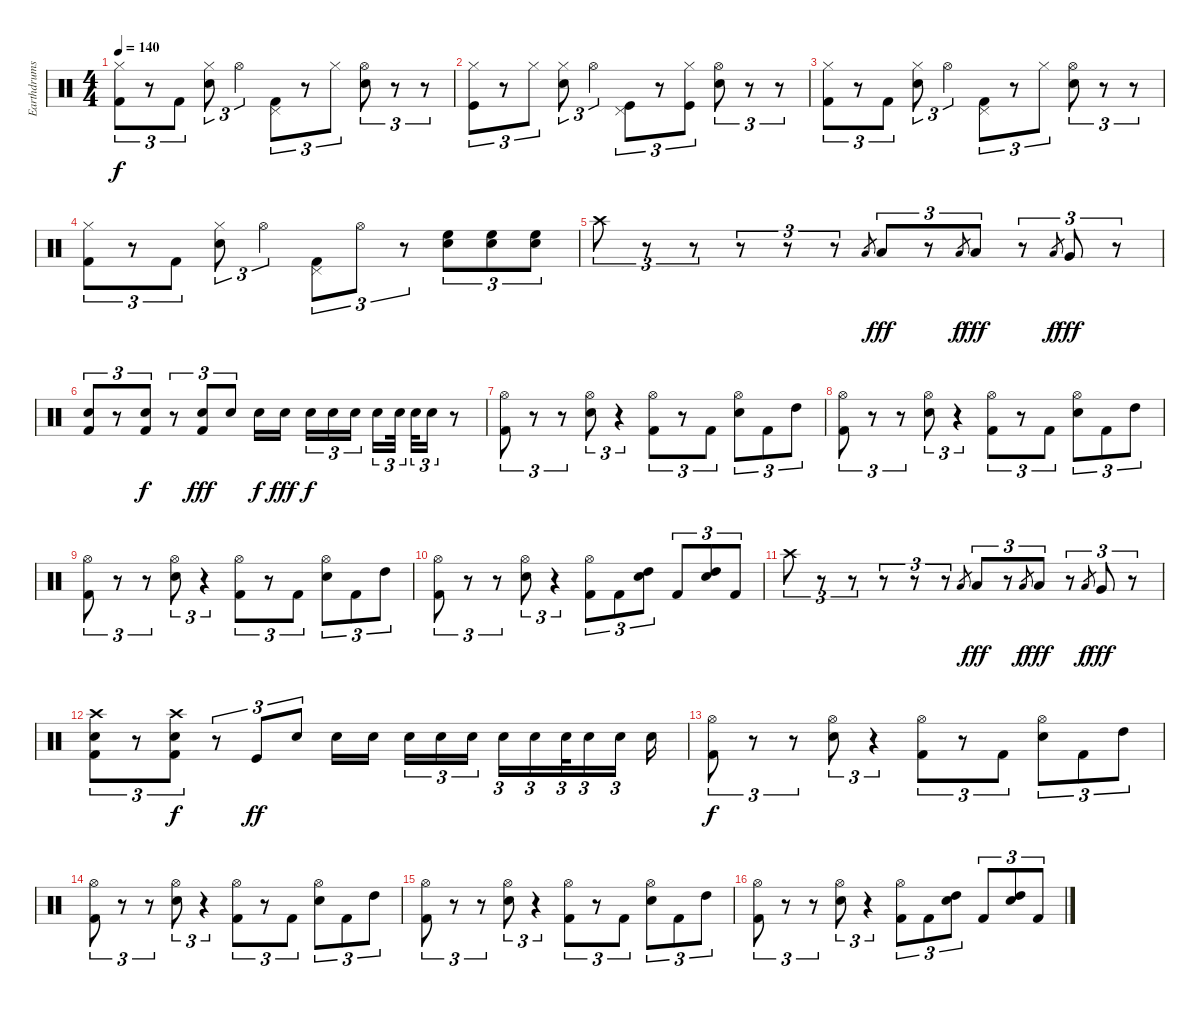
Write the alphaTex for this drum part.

\track ("Earthdrums" "Earthdrums") {instrument percussion}
\staff {score}
\articulation defaults
\ts (4 4)
\tempo 140
\clef neutral
\ks c
("Hi-Hat (closed)" "Kick (hit) 2").8{tu (3 2) dy f} r.8{tu (3 2)} "Kick (hit) 2".8{tu (3 2)} ("Hi-Hat (closed)" "Snare (hit) 2").8{tu (3 2)} "Hi-Hat (open)".4{tu (3 2)} ("Pedal Hi-Hat (hit)" "Kick (hit) 2").8{tu (3 2)} r.8{tu (3 2)} "Hi-Hat (closed)".8{tu (3 2)} ("Hi-Hat (open)" "Snare (hit) 2").8{tu (3 2)} r.8{tu (3 2)} r.8{tu (3 2)} |
("Hi-Hat (closed)" "Kick (hit)").8{tu (3 2)} r.8{tu (3 2)} "Hi-Hat (closed)".8{tu (3 2)} ("Hi-Hat (closed)" "Snare (hit) 2").8{tu (3 2)} "Hi-Hat (open)".4{tu (3 2)} ("Pedal Hi-Hat (hit)" "Kick (hit)").8{tu (3 2)} r.8{tu (3 2)} ("Hi-Hat (closed)" "Kick (hit)").8{tu (3 2)} ("Hi-Hat (open)" "Snare (hit) 2").8{tu (3 2)} r.8{tu (3 2)} r.8{tu (3 2)} |
("Hi-Hat (closed)" "Kick (hit) 2").8{tu (3 2)} r.8{tu (3 2)} "Kick (hit) 2".8{tu (3 2)} ("Hi-Hat (closed)" "Snare (hit) 2").8{tu (3 2)} "Hi-Hat (open)".4{tu (3 2)} ("Pedal Hi-Hat (hit)" "Kick (hit) 2").8{tu (3 2)} r.8{tu (3 2)} "Hi-Hat (closed)".8{tu (3 2)} ("Hi-Hat (open)" "Snare (hit) 2").8{tu (3 2)} r.8{tu (3 2)} r.8{tu (3 2)} |
("Hi-Hat (closed)" "Kick (hit) 2").8{tu (3 2)} r.8{tu (3 2)} "Kick (hit) 2".8{tu (3 2)} ("Hi-Hat (closed)" "Snare (hit) 2").8{tu (3 2)} "Hi-Hat (open)".4{tu (3 2)} ("Pedal Hi-Hat (hit)" "Kick (hit) 2").8{tu (3 2)} "Hi-Hat (open)".8{tu (3 2)} r.8{tu (3 2)} ("Snare (hit) 2" "High Floor Tom (hit)").8{tu (3 2)} ("Snare (hit) 2" "High Floor Tom (hit)").8{tu (3 2)} ("Snare (hit) 2" "High Floor Tom (hit)").8{tu (3 2)} |
"Crash high (hit)".8{tu (3 2)} r.8{tu (3 2)} r.8{tu (3 2)} r.8{tu (3 2)} r.8{tu (3 2)} r.8{tu (3 2)} "Low Tom (hit)".8{gr} "Low Tom (hit)".8{tu (3 2) dy fff} r.8{tu (3 2)} "Low Tom (hit)".8{gr dy f} "Low Tom (hit)".8{tu (3 2) dy fff} r.8{tu (3 2)} "Low Tom (hit)".8{gr dy f} "Very Low Tom (hit)".8{tu (3 2) dy fff} r.8{tu (3 2)} |
("Snare (hit) 2" "Kick (hit) 2").8{tu (3 2)} r.8{tu (3 2)} ("Snare (hit) 2" "Kick (hit) 2").8{tu (3 2) dy f} r.8{tu (3 2)} ("Snare (hit) 2" "Kick (hit) 2").8{tu (3 2) dy fff} "Snare (hit) 2".8{tu (3 2)} "Snare (hit) 2".16{dy f} "Snare (hit) 2".16{dy fff beam splitsecondary} "Snare (hit) 2".16{tu (3 2) dy f} "Snare (hit) 2".16{tu (3 2)} "Snare (hit) 2".16{tu (3 2)} "Snare (hit) 2".16{tu (3 2)} "Snare (hit) 2".32{tu (3 2) beam splitsecondary} "Snare (hit) 2".32{tu (3 2)} "Snare (hit) 2".16{tu (3 2)} r.8 |
("Hi-Hat (open)" "Kick (hit) 2").8{tu (3 2)} r.8{tu (3 2)} r.8{tu (3 2)} ("Hi-Hat (open)" "Snare (hit) 2").8{tu (3 2)} r.4{tu (3 2)} ("Hi-Hat (open)" "Kick (hit) 2").8{tu (3 2)} r.8{tu (3 2)} "Kick (hit) 2".8{tu (3 2)} ("Hi-Hat (open)" "Snare (hit) 2").8{tu (3 2)} "Kick (hit) 2".8{tu (3 2)} "High Tom (hit)".8{tu (3 2)} |
("Hi-Hat (open)" "Kick (hit) 2").8{tu (3 2)} r.8{tu (3 2)} r.8{tu (3 2)} ("Hi-Hat (open)" "Snare (hit) 2").8{tu (3 2)} r.4{tu (3 2)} ("Hi-Hat (open)" "Kick (hit) 2").8{tu (3 2)} r.8{tu (3 2)} "Kick (hit) 2".8{tu (3 2)} ("Hi-Hat (open)" "Snare (hit) 2").8{tu (3 2)} "Kick (hit) 2".8{tu (3 2)} "High Tom (hit)".8{tu (3 2)} |
("Hi-Hat (open)" "Kick (hit) 2").8{tu (3 2)} r.8{tu (3 2)} r.8{tu (3 2)} ("Hi-Hat (open)" "Snare (hit) 2").8{tu (3 2)} r.4{tu (3 2)} ("Hi-Hat (open)" "Kick (hit) 2").8{tu (3 2)} r.8{tu (3 2)} "Kick (hit) 2".8{tu (3 2)} ("Hi-Hat (open)" "Snare (hit) 2").8{tu (3 2)} "Kick (hit) 2".8{tu (3 2)} "High Tom (hit)".8{tu (3 2)} |
("Hi-Hat (open)" "Kick (hit) 2").8{tu (3 2)} r.8{tu (3 2)} r.8{tu (3 2)} ("Hi-Hat (open)" "Snare (hit) 2").8{tu (3 2)} r.4{tu (3 2)} ("Hi-Hat (open)" "Kick (hit) 2").8{tu (3 2)} "Kick (hit) 2".8{tu (3 2)} ("High Tom (hit)" "Snare (hit) 2").8{tu (3 2)} "Kick (hit) 2".8{tu (3 2)} ("High Tom (hit)" "Snare (hit) 2").8{tu (3 2)} "Kick (hit) 2".8{tu (3 2)} |
"Crash high (hit)".8{tu (3 2)} r.8{tu (3 2)} r.8{tu (3 2)} r.8{tu (3 2)} r.8{tu (3 2)} r.8{tu (3 2)} "Low Tom (hit)".8{gr} "Low Tom (hit)".8{tu (3 2) dy fff} r.8{tu (3 2)} "Low Tom (hit)".8{gr dy f} "Low Tom (hit)".8{tu (3 2) dy fff} r.8{tu (3 2)} "Low Tom (hit)".8{gr dy f} "Very Low Tom (hit)".8{tu (3 2) dy fff} r.8{tu (3 2)} |
("Crash high (hit)" "Snare (hit) 2" "Kick (hit) 2").8{tu (3 2)} r.8{tu (3 2)} ("Crash high (hit)" "Snare (hit) 2" "Kick (hit) 2").8{tu (3 2) dy f} r.8{tu (3 2)} "Kick (hit)".8{tu (3 2) dy ff} "Snare (hit) 2".8{tu (3 2)} "Snare (hit) 2".16 "Snare (hit) 2".16{beam splitsecondary} "Snare (hit) 2".16{tu (3 2)} "Snare (hit) 2".16{tu (3 2)} "Snare (hit) 2".16{tu (3 2)} "Snare (hit) 2".16{tu (3 2)} "Snare (hit) 2".16{tu (3 2)} "Snare (hit) 2".32{tu (3 2)} "Snare (hit) 2".16{tu (3 2)} "Snare (hit) 2".16{tu (3 2) beam splitsecondary} "Snare (hit) 2".16 |
("Hi-Hat (open)" "Kick (hit) 2").8{tu (3 2) dy f} r.8{tu (3 2)} r.8{tu (3 2)} ("Hi-Hat (open)" "Snare (hit) 2").8{tu (3 2)} r.4{tu (3 2)} ("Hi-Hat (open)" "Kick (hit) 2").8{tu (3 2)} r.8{tu (3 2)} "Kick (hit) 2".8{tu (3 2)} ("Hi-Hat (open)" "Snare (hit) 2").8{tu (3 2)} "Kick (hit) 2".8{tu (3 2)} "High Tom (hit)".8{tu (3 2)} |
("Hi-Hat (open)" "Kick (hit) 2").8{tu (3 2)} r.8{tu (3 2)} r.8{tu (3 2)} ("Hi-Hat (open)" "Snare (hit) 2").8{tu (3 2)} r.4{tu (3 2)} ("Hi-Hat (open)" "Kick (hit) 2").8{tu (3 2)} r.8{tu (3 2)} "Kick (hit) 2".8{tu (3 2)} ("Hi-Hat (open)" "Snare (hit) 2").8{tu (3 2)} "Kick (hit) 2".8{tu (3 2)} "High Tom (hit)".8{tu (3 2)} |
("Hi-Hat (open)" "Kick (hit) 2").8{tu (3 2)} r.8{tu (3 2)} r.8{tu (3 2)} ("Hi-Hat (open)" "Snare (hit) 2").8{tu (3 2)} r.4{tu (3 2)} ("Hi-Hat (open)" "Kick (hit) 2").8{tu (3 2)} r.8{tu (3 2)} "Kick (hit) 2".8{tu (3 2)} ("Hi-Hat (open)" "Snare (hit) 2").8{tu (3 2)} "Kick (hit) 2".8{tu (3 2)} "High Tom (hit)".8{tu (3 2)} |
("Hi-Hat (open)" "Kick (hit) 2").8{tu (3 2)} r.8{tu (3 2)} r.8{tu (3 2)} ("Hi-Hat (open)" "Snare (hit) 2").8{tu (3 2)} r.4{tu (3 2)} ("Hi-Hat (open)" "Kick (hit) 2").8{tu (3 2)} "Kick (hit) 2".8{tu (3 2)} ("High Tom (hit)" "Snare (hit) 2").8{tu (3 2)} "Kick (hit) 2".8{tu (3 2)} ("High Tom (hit)" "Snare (hit) 2").8{tu (3 2)} "Kick (hit) 2".8{tu (3 2)}
